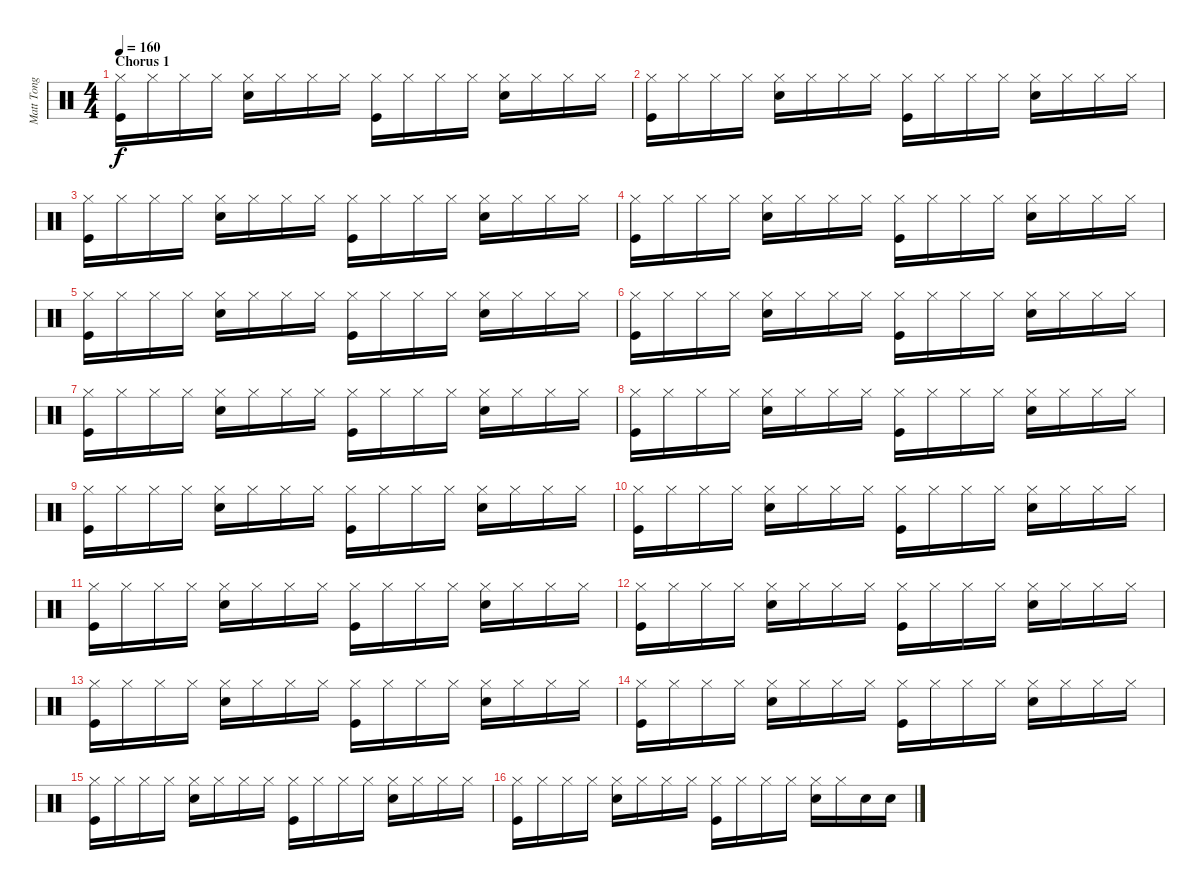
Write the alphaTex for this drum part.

\track ("Matt Tong" "Matt Tong") {instrument percussion}
\staff {score}
\articulation defaults
\ts (4 4)
\section ("" "Chorus 1")
\tempo 160
\clef neutral
\ks c
("Hi-Hat (closed)" "Kick (hit)").16{dy f} "Hi-Hat (closed)".16 "Hi-Hat (closed)".16 "Hi-Hat (closed)".16 ("Hi-Hat (closed)" "Electric Snare (hit)").16 "Hi-Hat (closed)".16 "Hi-Hat (closed)".16 "Hi-Hat (closed)".16 ("Hi-Hat (closed)" "Kick (hit)").16 "Hi-Hat (closed)".16 "Hi-Hat (closed)".16 "Hi-Hat (closed)".16 ("Hi-Hat (closed)" "Electric Snare (hit)").16 "Hi-Hat (closed)".16 "Hi-Hat (closed)".16 "Hi-Hat (closed)".16 |
("Hi-Hat (closed)" "Kick (hit)").16 "Hi-Hat (closed)".16 "Hi-Hat (closed)".16 "Hi-Hat (closed)".16 ("Hi-Hat (closed)" "Electric Snare (hit)").16 "Hi-Hat (closed)".16 "Hi-Hat (closed)".16 "Hi-Hat (closed)".16 ("Hi-Hat (closed)" "Kick (hit)").16 "Hi-Hat (closed)".16 "Hi-Hat (closed)".16 "Hi-Hat (closed)".16 ("Hi-Hat (closed)" "Electric Snare (hit)").16 "Hi-Hat (closed)".16 "Hi-Hat (closed)".16 "Hi-Hat (closed)".16 |
("Hi-Hat (closed)" "Kick (hit)").16 "Hi-Hat (closed)".16 "Hi-Hat (closed)".16 "Hi-Hat (closed)".16 ("Hi-Hat (closed)" "Electric Snare (hit)").16 "Hi-Hat (closed)".16 "Hi-Hat (closed)".16 "Hi-Hat (closed)".16 ("Hi-Hat (closed)" "Kick (hit)").16 "Hi-Hat (closed)".16 "Hi-Hat (closed)".16 "Hi-Hat (closed)".16 ("Hi-Hat (closed)" "Electric Snare (hit)").16 "Hi-Hat (closed)".16 "Hi-Hat (closed)".16 "Hi-Hat (closed)".16 |
("Hi-Hat (closed)" "Kick (hit)").16 "Hi-Hat (closed)".16 "Hi-Hat (closed)".16 "Hi-Hat (closed)".16 ("Hi-Hat (closed)" "Electric Snare (hit)").16 "Hi-Hat (closed)".16 "Hi-Hat (closed)".16 "Hi-Hat (closed)".16 ("Hi-Hat (closed)" "Kick (hit)").16 "Hi-Hat (closed)".16 "Hi-Hat (closed)".16 "Hi-Hat (closed)".16 ("Hi-Hat (closed)" "Electric Snare (hit)").16 "Hi-Hat (closed)".16 "Hi-Hat (closed)".16 "Hi-Hat (closed)".16 |
("Hi-Hat (closed)" "Kick (hit)").16 "Hi-Hat (closed)".16 "Hi-Hat (closed)".16 "Hi-Hat (closed)".16 ("Hi-Hat (closed)" "Electric Snare (hit)").16 "Hi-Hat (closed)".16 "Hi-Hat (closed)".16 "Hi-Hat (closed)".16 ("Hi-Hat (closed)" "Kick (hit)").16 "Hi-Hat (closed)".16 "Hi-Hat (closed)".16 "Hi-Hat (closed)".16 ("Hi-Hat (closed)" "Electric Snare (hit)").16 "Hi-Hat (closed)".16 "Hi-Hat (closed)".16 "Hi-Hat (closed)".16 |
("Hi-Hat (closed)" "Kick (hit)").16 "Hi-Hat (closed)".16 "Hi-Hat (closed)".16 "Hi-Hat (closed)".16 ("Hi-Hat (closed)" "Electric Snare (hit)").16 "Hi-Hat (closed)".16 "Hi-Hat (closed)".16 "Hi-Hat (closed)".16 ("Hi-Hat (closed)" "Kick (hit)").16 "Hi-Hat (closed)".16 "Hi-Hat (closed)".16 "Hi-Hat (closed)".16 ("Hi-Hat (closed)" "Electric Snare (hit)").16 "Hi-Hat (closed)".16 "Hi-Hat (closed)".16 "Hi-Hat (closed)".16 |
("Hi-Hat (closed)" "Kick (hit)").16 "Hi-Hat (closed)".16 "Hi-Hat (closed)".16 "Hi-Hat (closed)".16 ("Hi-Hat (closed)" "Electric Snare (hit)").16 "Hi-Hat (closed)".16 "Hi-Hat (closed)".16 "Hi-Hat (closed)".16 ("Hi-Hat (closed)" "Kick (hit)").16 "Hi-Hat (closed)".16 "Hi-Hat (closed)".16 "Hi-Hat (closed)".16 ("Hi-Hat (closed)" "Electric Snare (hit)").16 "Hi-Hat (closed)".16 "Hi-Hat (closed)".16 "Hi-Hat (closed)".16 |
("Hi-Hat (closed)" "Kick (hit)").16 "Hi-Hat (closed)".16 "Hi-Hat (closed)".16 "Hi-Hat (closed)".16 ("Hi-Hat (closed)" "Electric Snare (hit)").16 "Hi-Hat (closed)".16 "Hi-Hat (closed)".16 "Hi-Hat (closed)".16 ("Hi-Hat (closed)" "Kick (hit)").16 "Hi-Hat (closed)".16 "Hi-Hat (closed)".16 "Hi-Hat (closed)".16 ("Hi-Hat (closed)" "Electric Snare (hit)").16 "Hi-Hat (closed)".16 "Hi-Hat (closed)".16 "Hi-Hat (closed)".16 |
("Hi-Hat (closed)" "Kick (hit)").16 "Hi-Hat (closed)".16 "Hi-Hat (closed)".16 "Hi-Hat (closed)".16 ("Hi-Hat (closed)" "Electric Snare (hit)").16 "Hi-Hat (closed)".16 "Hi-Hat (closed)".16 "Hi-Hat (closed)".16 ("Hi-Hat (closed)" "Kick (hit)").16 "Hi-Hat (closed)".16 "Hi-Hat (closed)".16 "Hi-Hat (closed)".16 ("Hi-Hat (closed)" "Electric Snare (hit)").16 "Hi-Hat (closed)".16 "Hi-Hat (closed)".16 "Hi-Hat (closed)".16 |
("Hi-Hat (closed)" "Kick (hit)").16 "Hi-Hat (closed)".16 "Hi-Hat (closed)".16 "Hi-Hat (closed)".16 ("Hi-Hat (closed)" "Electric Snare (hit)").16 "Hi-Hat (closed)".16 "Hi-Hat (closed)".16 "Hi-Hat (closed)".16 ("Hi-Hat (closed)" "Kick (hit)").16 "Hi-Hat (closed)".16 "Hi-Hat (closed)".16 "Hi-Hat (closed)".16 ("Hi-Hat (closed)" "Electric Snare (hit)").16 "Hi-Hat (closed)".16 "Hi-Hat (closed)".16 "Hi-Hat (closed)".16 |
("Hi-Hat (closed)" "Kick (hit)").16 "Hi-Hat (closed)".16 "Hi-Hat (closed)".16 "Hi-Hat (closed)".16 ("Hi-Hat (closed)" "Electric Snare (hit)").16 "Hi-Hat (closed)".16 "Hi-Hat (closed)".16 "Hi-Hat (closed)".16 ("Hi-Hat (closed)" "Kick (hit)").16 "Hi-Hat (closed)".16 "Hi-Hat (closed)".16 "Hi-Hat (closed)".16 ("Hi-Hat (closed)" "Electric Snare (hit)").16 "Hi-Hat (closed)".16 "Hi-Hat (closed)".16 "Hi-Hat (closed)".16 |
("Hi-Hat (closed)" "Kick (hit)").16 "Hi-Hat (closed)".16 "Hi-Hat (closed)".16 "Hi-Hat (closed)".16 ("Hi-Hat (closed)" "Electric Snare (hit)").16 "Hi-Hat (closed)".16 "Hi-Hat (closed)".16 "Hi-Hat (closed)".16 ("Hi-Hat (closed)" "Kick (hit)").16 "Hi-Hat (closed)".16 "Hi-Hat (closed)".16 "Hi-Hat (closed)".16 ("Hi-Hat (closed)" "Electric Snare (hit)").16 "Hi-Hat (closed)".16 "Hi-Hat (closed)".16 "Hi-Hat (closed)".16 |
("Hi-Hat (closed)" "Kick (hit)").16 "Hi-Hat (closed)".16 "Hi-Hat (closed)".16 "Hi-Hat (closed)".16 ("Hi-Hat (closed)" "Electric Snare (hit)").16 "Hi-Hat (closed)".16 "Hi-Hat (closed)".16 "Hi-Hat (closed)".16 ("Hi-Hat (closed)" "Kick (hit)").16 "Hi-Hat (closed)".16 "Hi-Hat (closed)".16 "Hi-Hat (closed)".16 ("Hi-Hat (closed)" "Electric Snare (hit)").16 "Hi-Hat (closed)".16 "Hi-Hat (closed)".16 "Hi-Hat (closed)".16 |
("Hi-Hat (closed)" "Kick (hit)").16 "Hi-Hat (closed)".16 "Hi-Hat (closed)".16 "Hi-Hat (closed)".16 ("Hi-Hat (closed)" "Electric Snare (hit)").16 "Hi-Hat (closed)".16 "Hi-Hat (closed)".16 "Hi-Hat (closed)".16 ("Hi-Hat (closed)" "Kick (hit)").16 "Hi-Hat (closed)".16 "Hi-Hat (closed)".16 "Hi-Hat (closed)".16 ("Hi-Hat (closed)" "Electric Snare (hit)").16 "Hi-Hat (closed)".16 "Hi-Hat (closed)".16 "Hi-Hat (closed)".16 |
("Hi-Hat (closed)" "Kick (hit)").16 "Hi-Hat (closed)".16 "Hi-Hat (closed)".16 "Hi-Hat (closed)".16 ("Hi-Hat (closed)" "Electric Snare (hit)").16 "Hi-Hat (closed)".16 "Hi-Hat (closed)".16 "Hi-Hat (closed)".16 ("Hi-Hat (closed)" "Kick (hit)").16 "Hi-Hat (closed)".16 "Hi-Hat (closed)".16 "Hi-Hat (closed)".16 ("Hi-Hat (closed)" "Electric Snare (hit)").16 "Hi-Hat (closed)".16 "Hi-Hat (closed)".16 "Hi-Hat (closed)".16 |
("Hi-Hat (closed)" "Kick (hit)").16 "Hi-Hat (closed)".16 "Hi-Hat (closed)".16 "Hi-Hat (closed)".16 ("Hi-Hat (closed)" "Electric Snare (hit)").16 "Hi-Hat (closed)".16 "Hi-Hat (closed)".16 "Hi-Hat (closed)".16 ("Hi-Hat (closed)" "Kick (hit)").16 "Hi-Hat (closed)".16 "Hi-Hat (closed)".16 "Hi-Hat (closed)".16 ("Hi-Hat (closed)" "Electric Snare (hit)").16 "Hi-Hat (closed)".16 "Electric Snare (hit)".16 "Electric Snare (hit)".16
